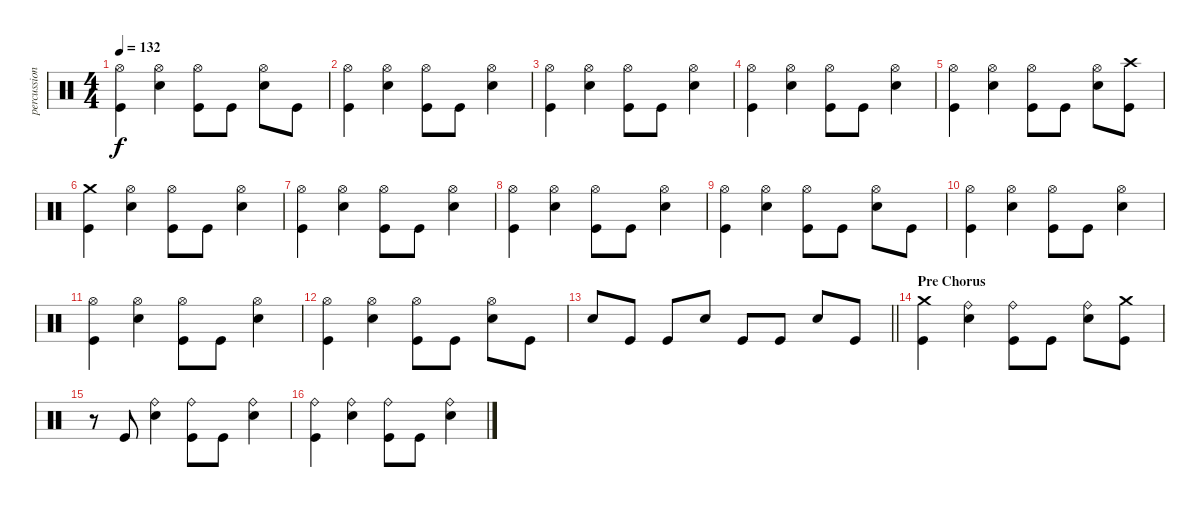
\track ("percussion" "percussion") {instrument percussion}
\staff {score}
\articulation defaults
\ts (4 4)
\tempo 132
\clef neutral
\ks c
("Hi-Hat (open)" "Kick (hit)").4{dy f} ("Snare (hit) 2" "Hi-Hat (open)").4 ("Hi-Hat (open)" "Kick (hit)").8 "Kick (hit)".8 ("Snare (hit) 2" "Hi-Hat (open)").8 "Kick (hit)".8 |
("Hi-Hat (open)" "Kick (hit)").4 ("Snare (hit) 2" "Hi-Hat (open)").4 ("Hi-Hat (open)" "Kick (hit)").8 "Kick (hit)".8 ("Snare (hit) 2" "Hi-Hat (open)").4 |
("Hi-Hat (open)" "Kick (hit)").4 ("Snare (hit) 2" "Hi-Hat (open)").4 ("Hi-Hat (open)" "Kick (hit)").8 "Kick (hit)".8 ("Snare (hit) 2" "Hi-Hat (open)").4 |
("Hi-Hat (open)" "Kick (hit)").4 ("Snare (hit) 2" "Hi-Hat (open)").4 ("Hi-Hat (open)" "Kick (hit)").8 "Kick (hit)".8 ("Snare (hit) 2" "Hi-Hat (open)").4 |
("Hi-Hat (open)" "Kick (hit)").4 ("Snare (hit) 2" "Hi-Hat (open)").4 ("Hi-Hat (open)" "Kick (hit)").8 "Kick (hit)".8 ("Snare (hit) 2" "Hi-Hat (open)").8 ("Crash high (hit)" "Kick (hit)").8 |
("Crash medium (hit)" "Kick (hit)").4 ("Snare (hit) 2" "Hi-Hat (open)").4 ("Hi-Hat (open)" "Kick (hit)").8 "Kick (hit)".8 ("Snare (hit) 2" "Hi-Hat (open)").4 |
("Hi-Hat (open)" "Kick (hit)").4 ("Snare (hit) 2" "Hi-Hat (open)").4 ("Hi-Hat (open)" "Kick (hit)").8 "Kick (hit)".8 ("Snare (hit) 2" "Hi-Hat (open)").4 |
("Hi-Hat (open)" "Kick (hit)").4 ("Snare (hit) 2" "Hi-Hat (open)").4 ("Hi-Hat (open)" "Kick (hit)").8 "Kick (hit)".8 ("Snare (hit) 2" "Hi-Hat (open)").4 |
("Hi-Hat (open)" "Kick (hit)").4 ("Snare (hit) 2" "Hi-Hat (open)").4 ("Hi-Hat (open)" "Kick (hit)").8 "Kick (hit)".8 ("Snare (hit) 2" "Hi-Hat (open)").8 "Kick (hit)".8 |
("Hi-Hat (open)" "Kick (hit)").4 ("Snare (hit) 2" "Hi-Hat (open)").4 ("Hi-Hat (open)" "Kick (hit)").8 "Kick (hit)".8 ("Snare (hit) 2" "Hi-Hat (open)").4 |
("Hi-Hat (open)" "Kick (hit)").4 ("Snare (hit) 2" "Hi-Hat (open)").4 ("Hi-Hat (open)" "Kick (hit)").8 "Kick (hit)".8 ("Snare (hit) 2" "Hi-Hat (open)").4 |
("Hi-Hat (open)" "Kick (hit)").4 ("Snare (hit) 2" "Hi-Hat (open)").4 ("Hi-Hat (open)" "Kick (hit)").8 "Kick (hit)".8 ("Snare (hit) 2" "Hi-Hat (open)").8 "Kick (hit)".8 |
\barLineRight lightlight "Snare (hit) 2".8 "Kick (hit)".8 "Kick (hit)".8 "Snare (hit) 2".8 "Kick (hit)".8 "Kick (hit)".8 "Snare (hit) 2".8 "Kick (hit)".8
|
\section ("" "Pre Chorus")
("Crash medium (hit)" "Kick (hit)").4 ("Ride (bell)" "Snare (hit) 2").4 ("Ride (bell)" "Kick (hit)").8 "Kick (hit)".8 ("Ride (bell)" "Snare (hit) 2").8 ("Crash medium (hit)" "Kick (hit)").8 |
r.8 "Kick (hit)".8 ("Ride (bell)" "Snare (hit) 2").4 ("Ride (bell)" "Kick (hit)").8 "Kick (hit)".8 ("Ride (bell)" "Snare (hit) 2").4 |
("Ride (bell)" "Kick (hit)").4 ("Ride (bell)" "Snare (hit) 2").4 ("Ride (bell)" "Kick (hit)").8 "Kick (hit)".8 ("Ride (bell)" "Snare (hit) 2").4
